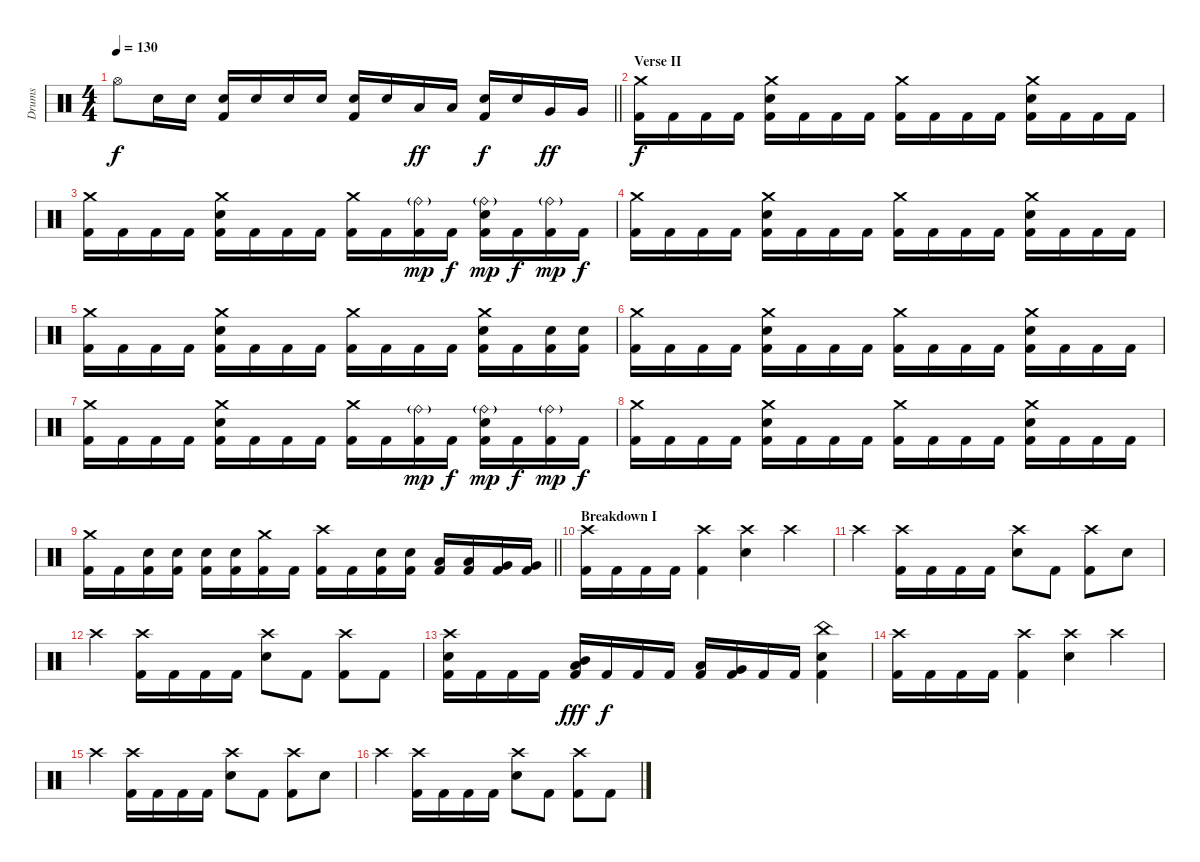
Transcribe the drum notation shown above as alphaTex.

\track ("Drums" "Drums") {instrument percussion}
\staff {score}
\articulation defaults
\ts (4 4)
\tempo 130
\clef neutral
\barLineRight lightlight
\ks c "Hi-Hat (open)".8{dy f} "Electric Snare (hit)".16 "Electric Snare (hit)".16
("Electric Snare (hit)" "Kick (hit) 2").16 "Electric Snare (hit)".16 "Electric Snare (hit)".16 "Electric Snare (hit)".16 ("Electric Snare (hit)" "Kick (hit) 2").16 "Electric Snare (hit)".16 "Low Tom (hit)".16{dy ff} "Low Tom (hit)".16 ("Electric Snare (hit)" "Kick (hit) 2").16{dy f} "Electric Snare (hit)".16 "Very Low Tom (hit)".16{dy ff} "Very Low Tom (hit)".16 |
\section ("" "Verse II")
("Crash medium (hit)" "Kick (hit) 2").16{dy f} "Kick (hit) 2".16 "Kick (hit) 2".16 "Kick (hit) 2".16 ("Crash medium (hit)" "Electric Snare (hit)" "Kick (hit) 2").16 "Kick (hit) 2".16 "Kick (hit) 2".16 "Kick (hit) 2".16 ("Crash medium (hit)" "Kick (hit) 2").16 "Kick (hit) 2".16 "Kick (hit) 2".16 "Kick (hit) 2".16 ("Crash medium (hit)" "Electric Snare (hit)" "Kick (hit) 2").16 "Kick (hit) 2".16 "Kick (hit) 2".16 "Kick (hit) 2".16 |
("Crash medium (hit)" "Kick (hit) 2").16 "Kick (hit) 2".16 "Kick (hit) 2".16 "Kick (hit) 2".16 ("Crash medium (hit)" "Electric Snare (hit)" "Kick (hit) 2").16 "Kick (hit) 2".16 "Kick (hit) 2".16 "Kick (hit) 2".16 ("Crash medium (hit)" "Kick (hit) 2").16 "Kick (hit) 2".16 ("Ride (bell)"{g} "Kick (hit) 2").16{dy mp} "Kick (hit) 2".16{dy f} ("Ride (bell)"{g} "Electric Snare (hit)" "Kick (hit) 2").16{dy mp} "Kick (hit) 2".16{dy f} ("Ride (bell)"{g} "Kick (hit) 2").16{dy mp} "Kick (hit) 2".16{dy f} |
("Crash medium (hit)" "Kick (hit) 2").16 "Kick (hit) 2".16 "Kick (hit) 2".16 "Kick (hit) 2".16 ("Crash medium (hit)" "Electric Snare (hit)" "Kick (hit) 2").16 "Kick (hit) 2".16 "Kick (hit) 2".16 "Kick (hit) 2".16 ("Crash medium (hit)" "Kick (hit) 2").16 "Kick (hit) 2".16 "Kick (hit) 2".16 "Kick (hit) 2".16 ("Crash medium (hit)" "Electric Snare (hit)" "Kick (hit) 2").16 "Kick (hit) 2".16 "Kick (hit) 2".16 "Kick (hit) 2".16 |
("Crash medium (hit)" "Kick (hit) 2").16 "Kick (hit) 2".16 "Kick (hit) 2".16 "Kick (hit) 2".16 ("Crash medium (hit)" "Electric Snare (hit)" "Kick (hit) 2").16 "Kick (hit) 2".16 "Kick (hit) 2".16 "Kick (hit) 2".16 ("Crash medium (hit)" "Kick (hit) 2").16 "Kick (hit) 2".16 "Kick (hit) 2".16 "Kick (hit) 2".16 ("Crash medium (hit)" "Electric Snare (hit)" "Kick (hit) 2").16 "Kick (hit) 2".16 ("Electric Snare (hit)" "Kick (hit) 2").16 ("Electric Snare (hit)" "Kick (hit) 2").16 |
("Crash medium (hit)" "Kick (hit) 2").16 "Kick (hit) 2".16 "Kick (hit) 2".16 "Kick (hit) 2".16 ("Crash medium (hit)" "Electric Snare (hit)" "Kick (hit) 2").16 "Kick (hit) 2".16 "Kick (hit) 2".16 "Kick (hit) 2".16 ("Crash medium (hit)" "Kick (hit) 2").16 "Kick (hit) 2".16 "Kick (hit) 2".16 "Kick (hit) 2".16 ("Crash medium (hit)" "Electric Snare (hit)" "Kick (hit) 2").16 "Kick (hit) 2".16 "Kick (hit) 2".16 "Kick (hit) 2".16 |
("Crash medium (hit)" "Kick (hit) 2").16 "Kick (hit) 2".16 "Kick (hit) 2".16 "Kick (hit) 2".16 ("Crash medium (hit)" "Electric Snare (hit)" "Kick (hit) 2").16 "Kick (hit) 2".16 "Kick (hit) 2".16 "Kick (hit) 2".16 ("Crash medium (hit)" "Kick (hit) 2").16 "Kick (hit) 2".16 ("Ride (bell)"{g} "Kick (hit) 2").16{dy mp} "Kick (hit) 2".16{dy f} ("Ride (bell)"{g} "Electric Snare (hit)" "Kick (hit) 2").16{dy mp} "Kick (hit) 2".16{dy f} ("Ride (bell)"{g} "Kick (hit) 2").16{dy mp} "Kick (hit) 2".16{dy f} |
("Crash medium (hit)" "Kick (hit) 2").16 "Kick (hit) 2".16 "Kick (hit) 2".16 "Kick (hit) 2".16 ("Crash medium (hit)" "Electric Snare (hit)" "Kick (hit) 2").16 "Kick (hit) 2".16 "Kick (hit) 2".16 "Kick (hit) 2".16 ("Crash medium (hit)" "Kick (hit) 2").16 "Kick (hit) 2".16 "Kick (hit) 2".16 "Kick (hit) 2".16 ("Crash medium (hit)" "Electric Snare (hit)" "Kick (hit) 2").16 "Kick (hit) 2".16 "Kick (hit) 2".16 "Kick (hit) 2".16 |
\barLineRight lightlight
("Crash medium (hit)" "Kick (hit) 2").16 "Kick (hit) 2".16 ("Electric Snare (hit)" "Kick (hit) 2").16 ("Electric Snare (hit)" "Kick (hit) 2").16 ("Electric Snare (hit)" "Kick (hit) 2").16 ("Electric Snare (hit)" "Kick (hit) 2").16 ("Crash medium (hit)" "Kick (hit) 2").16 "Kick (hit) 2".16 ("Crash high (hit)" "Kick (hit) 2").16 "Kick (hit) 2".16 ("Electric Snare (hit)" "Kick (hit) 2").16 ("Electric Snare (hit)" "Kick (hit) 2").16 ("Low Tom (hit)" "Kick (hit) 2").16 ("Low Tom (hit)" "Kick (hit) 2").16 ("Very Low Tom (hit)" "Kick (hit) 2").16 ("Very Low Tom (hit)" "Kick (hit) 2").16 |
\section ("" "Breakdown I")
("Crash high (hit)" "Kick (hit) 2").16 "Kick (hit) 2".16 "Kick (hit) 2".16 "Kick (hit) 2".16 ("Crash high (hit)" "Kick (hit) 2").4 ("Crash high (hit)" "Electric Snare (hit)").4 "Crash high (hit)".4 |
"Crash high (hit)".4 ("Crash high (hit)" "Kick (hit) 2").16 "Kick (hit) 2".16 "Kick (hit) 2".16 "Kick (hit) 2".16 ("Crash high (hit)" "Electric Snare (hit)").8 "Kick (hit) 2".8 ("Crash high (hit)" "Kick (hit) 2").8 "Electric Snare (hit)".8 |
"Crash high (hit)".4 ("Crash high (hit)" "Kick (hit) 2").16 "Kick (hit) 2".16 "Kick (hit) 2".16 "Kick (hit) 2".16 ("Crash high (hit)" "Electric Snare (hit)").8 "Kick (hit) 2".8 ("Crash high (hit)" "Kick (hit) 2").8 "Kick (hit) 2".8 |
("Crash high (hit)" "Electric Snare (hit)" "Kick (hit) 2").16 "Kick (hit) 2".16 "Kick (hit) 2".16 "Kick (hit) 2".16 ("Mid Tom (hit)" "Low Tom (hit)" "Kick (hit) 2").16{dy fff} "Kick (hit) 2".16{dy f} "Kick (hit) 2".16 "Kick (hit) 2".16 ("Low Tom (hit)" "Kick (hit) 2").16 ("Very Low Tom (hit)" "Kick (hit) 2").16 "Kick (hit) 2".16 "Kick (hit) 2".16 ("China (hit)" "Electric Snare (hit)" "Kick (hit) 2").4 |
("Crash high (hit)" "Kick (hit) 2").16 "Kick (hit) 2".16 "Kick (hit) 2".16 "Kick (hit) 2".16 ("Crash high (hit)" "Kick (hit) 2").4 ("Crash high (hit)" "Electric Snare (hit)").4 "Crash high (hit)".4 |
"Crash high (hit)".4 ("Crash high (hit)" "Kick (hit) 2").16 "Kick (hit) 2".16 "Kick (hit) 2".16 "Kick (hit) 2".16 ("Crash high (hit)" "Electric Snare (hit)").8 "Kick (hit) 2".8 ("Crash high (hit)" "Kick (hit) 2").8 "Electric Snare (hit)".8 |
"Crash high (hit)".4 ("Crash high (hit)" "Kick (hit) 2").16 "Kick (hit) 2".16 "Kick (hit) 2".16 "Kick (hit) 2".16 ("Crash high (hit)" "Electric Snare (hit)").8 "Kick (hit) 2".8 ("Crash high (hit)" "Kick (hit) 2").8 "Kick (hit) 2".8
